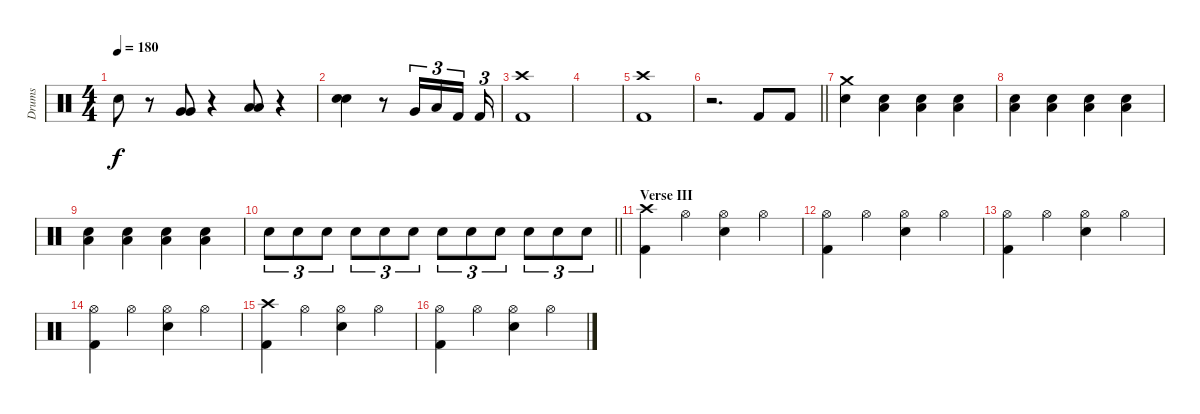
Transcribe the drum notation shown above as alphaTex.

\track ("Drums" "Drums") {instrument percussion}
\staff {score}
\articulation defaults
\ts (4 4)
\tempo 180
\clef neutral
\ks c "Electric Snare (hit)".8{dy f}
r.8 ("Very Low Tom (hit)" "Very Low Tom (hit)").8 r.4 ("Low Floor Tom (hit)" "Low Floor Tom (hit)").8 r.4 |
("Electric Snare (hit)" "Electric Snare (hit)").4 r.8 "Very Low Tom (hit)".16{tu (3 2)} "Low Floor Tom (hit)".16{tu (3 2)} "Kick (hit) 2".16{tu (3 2)} "Kick (hit) 2".16{tu (3 2)} |
("Crash high (hit)" "Kick (hit) 2").1 |
|
("Crash high (hit)" "Kick (hit) 2").1 |
\barLineRight lightlight
r.2{d} "Kick (hit) 2".8 "Kick (hit) 2".8 |
("Crash medium (hit)" "Electric Snare (hit)").4 ("Low Floor Tom (hit)" "Electric Snare (hit)").4 ("Low Floor Tom (hit)" "Electric Snare (hit)").4 ("Low Floor Tom (hit)" "Electric Snare (hit)").4 |
("Low Floor Tom (hit)" "Electric Snare (hit)").4 ("Low Floor Tom (hit)" "Electric Snare (hit)").4 ("Low Floor Tom (hit)" "Electric Snare (hit)").4 ("Low Floor Tom (hit)" "Electric Snare (hit)").4 |
("Low Floor Tom (hit)" "Electric Snare (hit)").4 ("Low Floor Tom (hit)" "Electric Snare (hit)").4 ("Low Floor Tom (hit)" "Electric Snare (hit)").4 ("Low Floor Tom (hit)" "Electric Snare (hit)").4 |
\barLineRight lightlight "Electric Snare (hit)".8{tu (3 2)} "Electric Snare (hit)".8{tu (3 2)} "Electric Snare (hit)".8{tu (3 2)} "Electric Snare (hit)".8{tu (3 2)} "Electric Snare (hit)".8{tu (3 2)} "Electric Snare (hit)".8{tu (3 2)} "Electric Snare (hit)".8{tu (3 2)} "Electric Snare (hit)".8{tu (3 2)} "Electric Snare (hit)".8{tu (3 2)} "Electric Snare (hit)".8{tu (3 2)} "Electric Snare (hit)".8{tu (3 2)} "Electric Snare (hit)".8{tu (3 2)}
|
\section ("" "Verse III")
("Crash high (hit)" "Kick (hit) 2").4 "Hi-Hat (open)".4 ("Hi-Hat (open)" "Electric Snare (hit)").4 "Hi-Hat (open)".4 |
("Hi-Hat (open)" "Kick (hit) 2").4 "Hi-Hat (open)".4 ("Hi-Hat (open)" "Electric Snare (hit)").4 "Hi-Hat (open)".4 |
("Hi-Hat (open)" "Kick (hit) 2").4 "Hi-Hat (open)".4 ("Hi-Hat (open)" "Electric Snare (hit)").4 "Hi-Hat (open)".4 |
("Hi-Hat (open)" "Kick (hit) 2").4 "Hi-Hat (open)".4 ("Hi-Hat (open)" "Electric Snare (hit)").4 "Hi-Hat (open)".4 |
("Crash high (hit)" "Kick (hit) 2").4 "Hi-Hat (open)".4 ("Hi-Hat (open)" "Electric Snare (hit)").4 "Hi-Hat (open)".4 |
("Hi-Hat (open)" "Kick (hit) 2").4 "Hi-Hat (open)".4 ("Hi-Hat (open)" "Electric Snare (hit)").4 "Hi-Hat (open)".4
